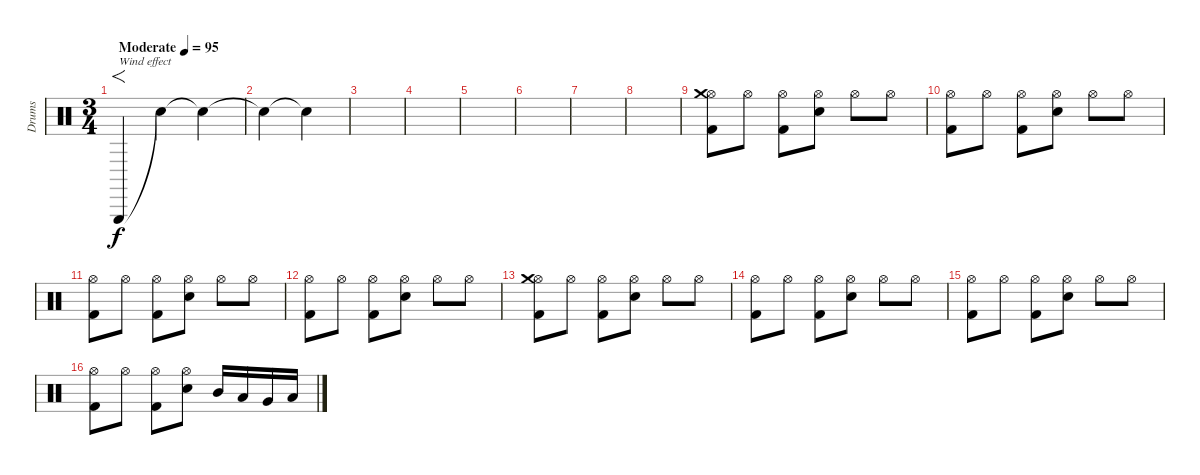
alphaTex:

\track ("Drums" "Drums") {instrument percussion}
\staff {score}
\articulation defaults
\ts (3 4)
\tempo (95 "Moderate")
\clef neutral
\ks c "Triangle (hit)".4{f txt "Wind effect" dy f volume 5} "Snare (hit)"{t}.4 "Snare (hit)"{t}.4
|
"Snare (hit)"{t}.4 "Snare (hit)"{t}.4 |
|
|
|
|
|
|
("Hi-Hat (open)" "Crash medium (hit)" "Kick (hit) 2").8{volume 14} "Hi-Hat (open)".8 ("Hi-Hat (open)" "Kick (hit) 2").8 ("Hi-Hat (open)" "Electric Snare (hit)").8 "Hi-Hat (open)".8 "Hi-Hat (open)".8 |
("Hi-Hat (open)" "Kick (hit) 2").8 "Hi-Hat (open)".8 ("Hi-Hat (open)" "Kick (hit) 2").8 ("Hi-Hat (open)" "Electric Snare (hit)").8 "Hi-Hat (open)".8 "Hi-Hat (open)".8 |
("Hi-Hat (open)" "Kick (hit) 2").8 "Hi-Hat (open)".8 ("Hi-Hat (open)" "Kick (hit) 2").8 ("Hi-Hat (open)" "Electric Snare (hit)").8 "Hi-Hat (open)".8 "Hi-Hat (open)".8 |
("Hi-Hat (open)" "Kick (hit) 2").8 "Hi-Hat (open)".8 ("Hi-Hat (open)" "Kick (hit) 2").8 ("Hi-Hat (open)" "Electric Snare (hit)").8 "Hi-Hat (open)".8 "Hi-Hat (open)".8 |
("Hi-Hat (open)" "Crash medium (hit)" "Kick (hit) 2").8 "Hi-Hat (open)".8 ("Hi-Hat (open)" "Kick (hit) 2").8 ("Hi-Hat (open)" "Electric Snare (hit)").8 "Hi-Hat (open)".8 "Hi-Hat (open)".8 |
("Hi-Hat (open)" "Kick (hit) 2").8 "Hi-Hat (open)".8 ("Hi-Hat (open)" "Kick (hit) 2").8 ("Hi-Hat (open)" "Electric Snare (hit)").8 "Hi-Hat (open)".8 "Hi-Hat (open)".8 |
("Hi-Hat (open)" "Kick (hit) 2").8 "Hi-Hat (open)".8 ("Hi-Hat (open)" "Kick (hit) 2").8 ("Hi-Hat (open)" "Electric Snare (hit)").8 "Hi-Hat (open)".8 "Hi-Hat (open)".8 |
("Hi-Hat (open)" "Kick (hit) 2").8 "Hi-Hat (open)".8 ("Hi-Hat (open)" "Kick (hit) 2").8 ("Hi-Hat (open)" "Electric Snare (hit)").8 "Mid Tom (hit)".16 "Low Tom (hit)".16 "Very Low Tom (hit)".16 "Low Floor Tom (hit)".16
